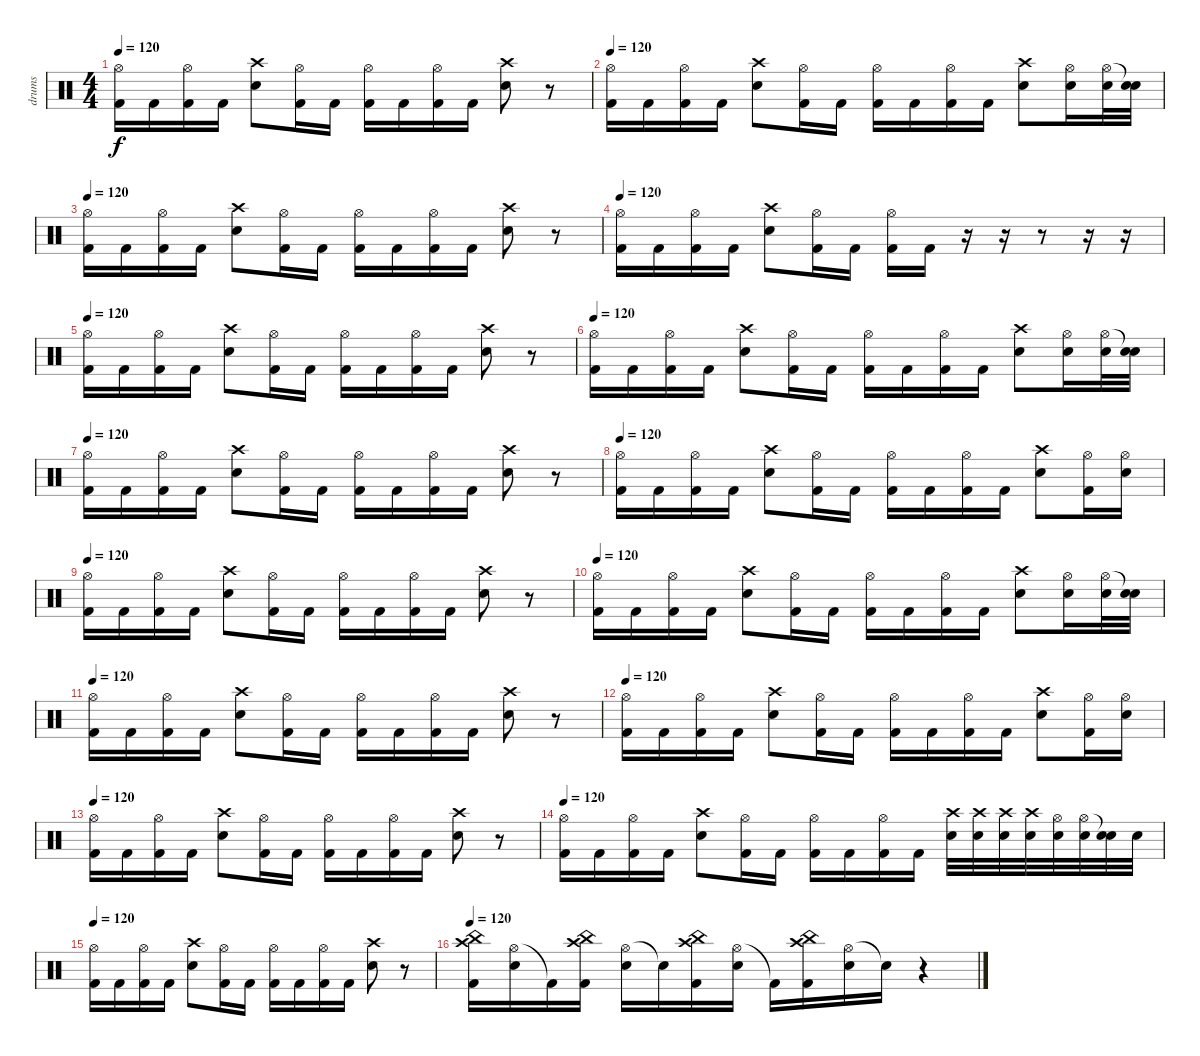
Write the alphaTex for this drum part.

\track ("drums" "drums") {instrument percussion}
\staff {score}
\articulation defaults
\ts (4 4)
\tempo 120
\clef neutral
\ks c
("Hi-Hat (open)" "Kick (hit) 2").16{dy f} "Kick (hit) 2".16 ("Hi-Hat (open)" "Kick (hit) 2").16 "Kick (hit) 2".16 ("Crash high (hit)" "Electric Snare (hit)").8 ("Hi-Hat (open)" "Kick (hit) 2").16 "Kick (hit) 2".16 ("Hi-Hat (open)" "Kick (hit) 2").16 "Kick (hit) 2".16 ("Hi-Hat (open)" "Kick (hit) 2").16 "Kick (hit) 2".16 ("Crash high (hit)" "Electric Snare (hit)").8 r.8 |
\tempo 120
("Hi-Hat (open)" "Kick (hit) 2").16 "Kick (hit) 2".16 ("Hi-Hat (open)" "Kick (hit) 2").16 "Kick (hit) 2".16 ("Crash high (hit)" "Electric Snare (hit)").8 ("Hi-Hat (open)" "Kick (hit) 2").16 "Kick (hit) 2".16 ("Hi-Hat (open)" "Kick (hit) 2").16 "Kick (hit) 2".16 ("Hi-Hat (open)" "Kick (hit) 2").16 "Kick (hit) 2".16 ("Crash high (hit)" "Electric Snare (hit)").8 ("Hi-Hat (open)" "Electric Snare (hit)").16 ("Hi-Hat (open)" "Electric Snare (hit)").32 ("Snare (hit)"{t} "Electric Snare (hit)").32 |
\tempo 120
("Hi-Hat (open)" "Kick (hit) 2").16 "Kick (hit) 2".16 ("Hi-Hat (open)" "Kick (hit) 2").16 "Kick (hit) 2".16 ("Crash high (hit)" "Electric Snare (hit)").8 ("Hi-Hat (open)" "Kick (hit) 2").16 "Kick (hit) 2".16 ("Hi-Hat (open)" "Kick (hit) 2").16 "Kick (hit) 2".16 ("Hi-Hat (open)" "Kick (hit) 2").16 "Kick (hit) 2".16 ("Crash high (hit)" "Electric Snare (hit)").8 r.8 |
\tempo 120
("Hi-Hat (open)" "Kick (hit) 2").16 "Kick (hit) 2".16 ("Hi-Hat (open)" "Kick (hit) 2").16 "Kick (hit) 2".16 ("Crash high (hit)" "Electric Snare (hit)").8 ("Hi-Hat (open)" "Kick (hit) 2").16 "Kick (hit) 2".16 ("Hi-Hat (open)" "Kick (hit) 2").16 "Kick (hit) 2".16 r.16 r.16 r.8 r.16 r.16 |
\tempo 120
("Hi-Hat (open)" "Kick (hit) 2").16 "Kick (hit) 2".16 ("Hi-Hat (open)" "Kick (hit) 2").16 "Kick (hit) 2".16 ("Crash high (hit)" "Electric Snare (hit)").8 ("Hi-Hat (open)" "Kick (hit) 2").16 "Kick (hit) 2".16 ("Hi-Hat (open)" "Kick (hit) 2").16 "Kick (hit) 2".16 ("Hi-Hat (open)" "Kick (hit) 2").16 "Kick (hit) 2".16 ("Crash high (hit)" "Electric Snare (hit)").8 r.8 |
\tempo 120
("Hi-Hat (open)" "Kick (hit) 2").16 "Kick (hit) 2".16 ("Hi-Hat (open)" "Kick (hit) 2").16 "Kick (hit) 2".16 ("Crash high (hit)" "Electric Snare (hit)").8 ("Hi-Hat (open)" "Kick (hit) 2").16 "Kick (hit) 2".16 ("Hi-Hat (open)" "Kick (hit) 2").16 "Kick (hit) 2".16 ("Hi-Hat (open)" "Kick (hit) 2").16 "Kick (hit) 2".16 ("Crash high (hit)" "Electric Snare (hit)").8 ("Hi-Hat (open)" "Electric Snare (hit)").16 ("Hi-Hat (open)" "Electric Snare (hit)").32 ("Snare (hit)"{t} "Electric Snare (hit)").32 |
\tempo 120
("Hi-Hat (open)" "Kick (hit) 2").16 "Kick (hit) 2".16 ("Hi-Hat (open)" "Kick (hit) 2").16 "Kick (hit) 2".16 ("Crash high (hit)" "Electric Snare (hit)").8 ("Hi-Hat (open)" "Kick (hit) 2").16 "Kick (hit) 2".16 ("Hi-Hat (open)" "Kick (hit) 2").16 "Kick (hit) 2".16 ("Hi-Hat (open)" "Kick (hit) 2").16 "Kick (hit) 2".16 ("Crash high (hit)" "Electric Snare (hit)").8 r.8 |
\tempo 120
("Hi-Hat (open)" "Kick (hit) 2").16 "Kick (hit) 2".16 ("Hi-Hat (open)" "Kick (hit) 2").16 "Kick (hit) 2".16 ("Crash high (hit)" "Electric Snare (hit)").8 ("Hi-Hat (open)" "Kick (hit) 2").16 "Kick (hit) 2".16 ("Hi-Hat (open)" "Kick (hit) 2").16 "Kick (hit) 2".16 ("Hi-Hat (open)" "Kick (hit) 2").16 "Kick (hit) 2".16 ("Crash high (hit)" "Electric Snare (hit)").8 ("Hi-Hat (open)" "Kick (hit) 2").16 ("Hi-Hat (open)" "Electric Snare (hit)").16 |
\tempo 120
("Hi-Hat (open)" "Kick (hit) 2").16 "Kick (hit) 2".16 ("Hi-Hat (open)" "Kick (hit) 2").16 "Kick (hit) 2".16 ("Crash high (hit)" "Electric Snare (hit)").8 ("Hi-Hat (open)" "Kick (hit) 2").16 "Kick (hit) 2".16 ("Hi-Hat (open)" "Kick (hit) 2").16 "Kick (hit) 2".16 ("Hi-Hat (open)" "Kick (hit) 2").16 "Kick (hit) 2".16 ("Crash high (hit)" "Electric Snare (hit)").8 r.8 |
\tempo 120
("Hi-Hat (open)" "Kick (hit) 2").16 "Kick (hit) 2".16 ("Hi-Hat (open)" "Kick (hit) 2").16 "Kick (hit) 2".16 ("Crash high (hit)" "Electric Snare (hit)").8 ("Hi-Hat (open)" "Kick (hit) 2").16 "Kick (hit) 2".16 ("Hi-Hat (open)" "Kick (hit) 2").16 "Kick (hit) 2".16 ("Hi-Hat (open)" "Kick (hit) 2").16 "Kick (hit) 2".16 ("Crash high (hit)" "Electric Snare (hit)").8 ("Hi-Hat (open)" "Electric Snare (hit)").16 ("Hi-Hat (open)" "Electric Snare (hit)").32 ("Snare (hit)"{t} "Electric Snare (hit)").32 |
\tempo 120
("Hi-Hat (open)" "Kick (hit) 2").16 "Kick (hit) 2".16 ("Hi-Hat (open)" "Kick (hit) 2").16 "Kick (hit) 2".16 ("Crash high (hit)" "Electric Snare (hit)").8 ("Hi-Hat (open)" "Kick (hit) 2").16 "Kick (hit) 2".16 ("Hi-Hat (open)" "Kick (hit) 2").16 "Kick (hit) 2".16 ("Hi-Hat (open)" "Kick (hit) 2").16 "Kick (hit) 2".16 ("Crash high (hit)" "Electric Snare (hit)").8 r.8 |
\tempo 120
("Hi-Hat (open)" "Kick (hit) 2").16 "Kick (hit) 2".16 ("Hi-Hat (open)" "Kick (hit) 2").16 "Kick (hit) 2".16 ("Crash high (hit)" "Electric Snare (hit)").8 ("Hi-Hat (open)" "Kick (hit) 2").16 "Kick (hit) 2".16 ("Hi-Hat (open)" "Kick (hit) 2").16 "Kick (hit) 2".16 ("Hi-Hat (open)" "Kick (hit) 2").16 "Kick (hit) 2".16 ("Crash high (hit)" "Electric Snare (hit)").8 ("Hi-Hat (open)" "Kick (hit) 2").16 ("Hi-Hat (open)" "Electric Snare (hit)").16 |
\tempo 120
("Hi-Hat (open)" "Kick (hit) 2").16 "Kick (hit) 2".16 ("Hi-Hat (open)" "Kick (hit) 2").16 "Kick (hit) 2".16 ("Crash high (hit)" "Electric Snare (hit)").8 ("Hi-Hat (open)" "Kick (hit) 2").16 "Kick (hit) 2".16 ("Hi-Hat (open)" "Kick (hit) 2").16 "Kick (hit) 2".16 ("Hi-Hat (open)" "Kick (hit) 2").16 "Kick (hit) 2".16 ("Crash high (hit)" "Electric Snare (hit)").8 r.8 |
\tempo 120
("Hi-Hat (open)" "Kick (hit) 2").16 "Kick (hit) 2".16 ("Hi-Hat (open)" "Kick (hit) 2").16 "Kick (hit) 2".16 ("Crash high (hit)" "Electric Snare (hit)").8 ("Hi-Hat (open)" "Kick (hit) 2").16 "Kick (hit) 2".16 ("Hi-Hat (open)" "Kick (hit) 2").16 "Kick (hit) 2".16 ("Hi-Hat (open)" "Kick (hit) 2").16 "Kick (hit) 2".16 ("Crash high (hit)" "Electric Snare (hit)").32 ("Crash high (hit)" "Electric Snare (hit)").32 ("Crash high (hit)" "Electric Snare (hit)").32 ("Crash high (hit)" "Electric Snare (hit)").32 ("Hi-Hat (open)" "Electric Snare (hit)").32 ("Hi-Hat (open)" "Electric Snare (hit)").32 ("Snare (hit)"{t} "Electric Snare (hit)").32 "Electric Snare (hit)".32 |
\tempo 120
("Hi-Hat (open)" "Kick (hit) 2").16 "Kick (hit) 2".16 ("Hi-Hat (open)" "Kick (hit) 2").16 "Kick (hit) 2".16 ("Crash high (hit)" "Electric Snare (hit)").8 ("Hi-Hat (open)" "Kick (hit) 2").16 "Kick (hit) 2".16 ("Hi-Hat (open)" "Kick (hit) 2").16 "Kick (hit) 2".16 ("Hi-Hat (open)" "Kick (hit) 2").16 "Kick (hit) 2".16 ("Crash high (hit)" "Electric Snare (hit)").8 r.8 |
\tempo 120
("China (hit)" "Crash high (hit)" "Kick (hit) 2").16 ("Hi-Hat (open)" "Electric Snare (hit)").16 "Kick (hit) 2"{t}.16 ("China (hit)" "Crash high (hit)" "Kick (hit) 2").16 ("Hi-Hat (open)" "Electric Snare (hit)").16 "Snare (hit)"{t}.16 ("China (hit)" "Crash high (hit)" "Kick (hit) 2").16 ("Hi-Hat (open)" "Electric Snare (hit)").16 "Kick (hit) 2"{t}.16 ("China (hit)" "Crash high (hit)" "Kick (hit) 2").16 ("Hi-Hat (open)" "Electric Snare (hit)").16 "Snare (hit)"{t}.16 r.4
